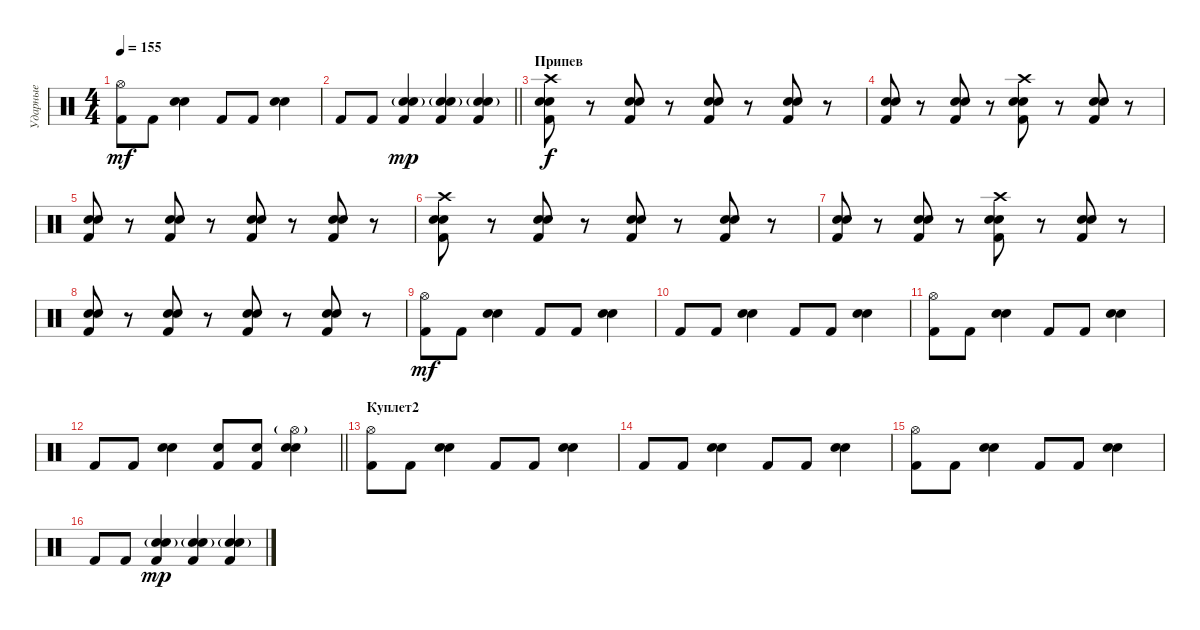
\track ("Ударные" "Ударные") {instrument percussion}
\staff {score}
\articulation defaults
\ts (4 4)
\tempo 155
\clef neutral
\ks c
("Hi-Hat (open)" "Kick (hit) 2").8{dy mf} "Kick (hit) 2".8 ("Electric Snare (hit)" "Snare (hit) 2").4 "Kick (hit) 2".8 "Kick (hit) 2".8 ("Electric Snare (hit)" "Snare (hit) 2").4 |
\barLineRight lightlight "Kick (hit) 2".8 "Kick (hit) 2".8
("Electric Snare (hit)" "Kick (hit) 2" "Snare (hit) 2"{g}).4{dy mp} ("Electric Snare (hit)" "Kick (hit) 2" "Snare (hit) 2"{g}).4 ("Electric Snare (hit)" "Kick (hit) 2" "Snare (hit) 2"{g}).4 |
\section ("" "Припев")
("Snare (hit) 2" "Electric Snare (hit)" "Crash high (hit)" "Kick (hit) 2").8{dy f} r.8 ("Snare (hit) 2" "Electric Snare (hit)" "Kick (hit) 2").8 r.8 ("Snare (hit) 2" "Electric Snare (hit)" "Kick (hit) 2").8 r.8 ("Snare (hit) 2" "Electric Snare (hit)" "Kick (hit) 2").8 r.8 |
("Snare (hit) 2" "Electric Snare (hit)" "Kick (hit) 2").8 r.8 ("Snare (hit) 2" "Electric Snare (hit)" "Kick (hit) 2").8 r.8 ("Snare (hit) 2" "Electric Snare (hit)" "Crash high (hit)" "Kick (hit) 2").8 r.8 ("Snare (hit) 2" "Electric Snare (hit)" "Kick (hit) 2").8 r.8 |
("Snare (hit) 2" "Electric Snare (hit)" "Kick (hit) 2").8 r.8 ("Snare (hit) 2" "Electric Snare (hit)" "Kick (hit) 2").8 r.8 ("Snare (hit) 2" "Electric Snare (hit)" "Kick (hit) 2").8 r.8 ("Snare (hit) 2" "Electric Snare (hit)" "Kick (hit) 2").8 r.8 |
("Snare (hit) 2" "Electric Snare (hit)" "Crash high (hit)" "Kick (hit) 2").8 r.8 ("Snare (hit) 2" "Electric Snare (hit)" "Kick (hit) 2").8 r.8 ("Snare (hit) 2" "Electric Snare (hit)" "Kick (hit) 2").8 r.8 ("Snare (hit) 2" "Electric Snare (hit)" "Kick (hit) 2").8 r.8 |
("Snare (hit) 2" "Electric Snare (hit)" "Kick (hit) 2").8 r.8 ("Snare (hit) 2" "Electric Snare (hit)" "Kick (hit) 2").8 r.8 ("Snare (hit) 2" "Electric Snare (hit)" "Crash high (hit)" "Kick (hit) 2").8 r.8 ("Snare (hit) 2" "Electric Snare (hit)" "Kick (hit) 2").8 r.8 |
("Snare (hit) 2" "Electric Snare (hit)" "Kick (hit) 2").8 r.8 ("Snare (hit) 2" "Electric Snare (hit)" "Kick (hit) 2").8 r.8 ("Snare (hit) 2" "Electric Snare (hit)" "Kick (hit) 2").8 r.8 ("Snare (hit) 2" "Electric Snare (hit)" "Kick (hit) 2").8 r.8 |
("Hi-Hat (open)" "Kick (hit) 2").8{dy mf} "Kick (hit) 2".8 ("Electric Snare (hit)" "Snare (hit) 2").4 "Kick (hit) 2".8 "Kick (hit) 2".8 ("Electric Snare (hit)" "Snare (hit) 2").4 |
"Kick (hit) 2".8 "Kick (hit) 2".8 ("Electric Snare (hit)" "Snare (hit) 2").4 "Kick (hit) 2".8 "Kick (hit) 2".8 ("Electric Snare (hit)" "Snare (hit) 2").4 |
("Hi-Hat (open)" "Kick (hit) 2").8 "Kick (hit) 2".8 ("Electric Snare (hit)" "Snare (hit) 2").4 "Kick (hit) 2".8 "Kick (hit) 2".8 ("Electric Snare (hit)" "Snare (hit) 2").4 |
\barLineRight lightlight "Kick (hit) 2".8 "Kick (hit) 2".8
("Electric Snare (hit)" "Snare (hit) 2").4 ("Electric Snare (hit)" "Kick (hit) 2").8 ("Electric Snare (hit)" "Kick (hit) 2").8 ("Electric Snare (hit)" "Hi-Hat (open)"{g} "Snare (hit) 2").4 |
\section ("" "Куплет2")
("Hi-Hat (open)" "Kick (hit) 2").8 "Kick (hit) 2".8 ("Electric Snare (hit)" "Snare (hit) 2").4 "Kick (hit) 2".8 "Kick (hit) 2".8 ("Electric Snare (hit)" "Snare (hit) 2").4 |
"Kick (hit) 2".8 "Kick (hit) 2".8 ("Electric Snare (hit)" "Snare (hit) 2").4 "Kick (hit) 2".8 "Kick (hit) 2".8 ("Electric Snare (hit)" "Snare (hit) 2").4 |
("Hi-Hat (open)" "Kick (hit) 2").8 "Kick (hit) 2".8 ("Electric Snare (hit)" "Snare (hit) 2").4 "Kick (hit) 2".8 "Kick (hit) 2".8 ("Electric Snare (hit)" "Snare (hit) 2").4 |
"Kick (hit) 2".8 "Kick (hit) 2".8 ("Electric Snare (hit)" "Kick (hit) 2" "Snare (hit) 2"{g}).4{dy mp} ("Electric Snare (hit)" "Kick (hit) 2" "Snare (hit) 2"{g}).4 ("Electric Snare (hit)" "Kick (hit) 2" "Snare (hit) 2"{g}).4
